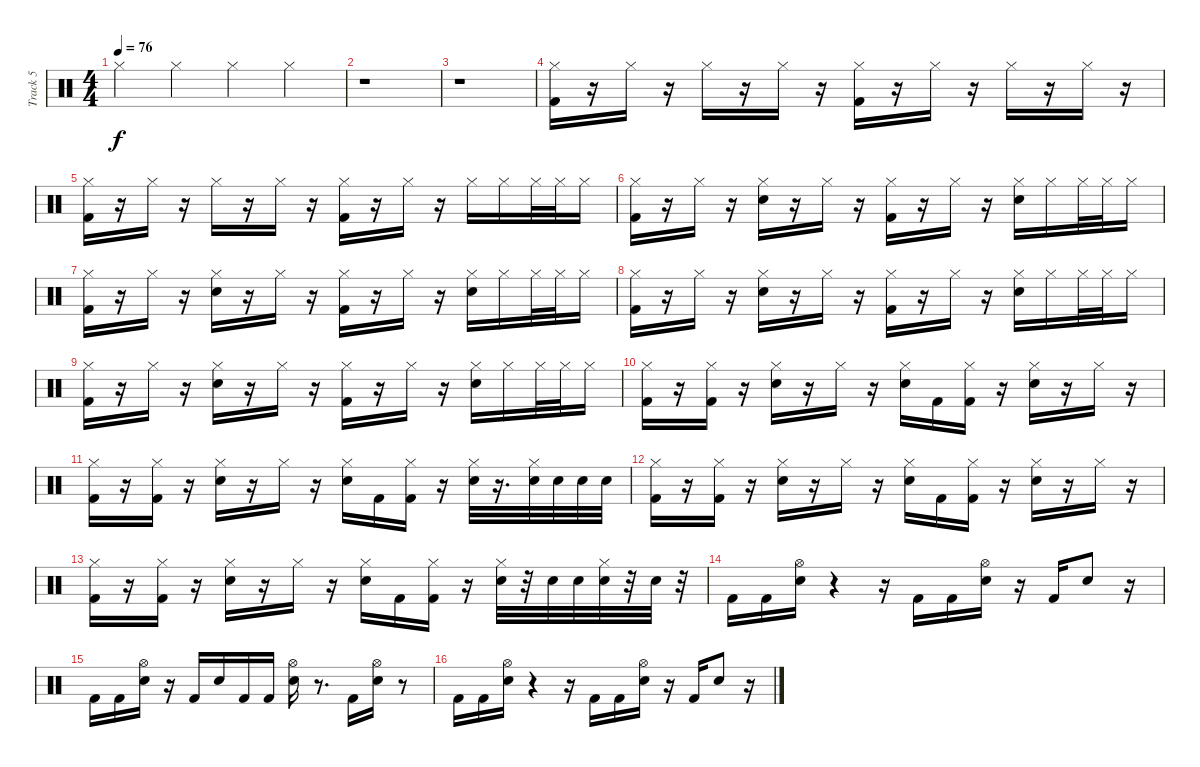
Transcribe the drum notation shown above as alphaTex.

\track ("Track 5" "Track 5") {instrument percussion}
\staff {score}
\articulation defaults
\ts (4 4)
\tempo 76
\clef neutral
\ks c "Hi-Hat (closed)".4{dy f} "Hi-Hat (closed)".4 "Hi-Hat (closed)".4 "Hi-Hat (closed)".4
|
r.1 |
r.1 |
("Hi-Hat (closed)" "Kick (hit) 2").16 r.16 "Hi-Hat (closed)".16 r.16 "Hi-Hat (closed)".16 r.16 "Hi-Hat (closed)".16 r.16 ("Hi-Hat (closed)" "Kick (hit) 2").16 r.16 "Hi-Hat (closed)".16 r.16 "Hi-Hat (closed)".16 r.16 "Hi-Hat (closed)".16 r.16 |
("Hi-Hat (closed)" "Kick (hit) 2").16 r.16 "Hi-Hat (closed)".16 r.16 "Hi-Hat (closed)".16 r.16 "Hi-Hat (closed)".16 r.16 ("Hi-Hat (closed)" "Kick (hit) 2").16 r.16 "Hi-Hat (closed)".16 r.16 "Hi-Hat (closed)".16 "Hi-Hat (closed)".16 "Hi-Hat (closed)".32 "Hi-Hat (closed)".32 "Hi-Hat (closed)".16 |
("Hi-Hat (closed)" "Kick (hit) 2").16 r.16 "Hi-Hat (closed)".16 r.16 ("Electric Snare (hit)" "Hi-Hat (closed)").16 r.16 "Hi-Hat (closed)".16 r.16 ("Hi-Hat (closed)" "Kick (hit) 2").16 r.16 "Hi-Hat (closed)".16 r.16 ("Hi-Hat (closed)" "Electric Snare (hit)").16 "Hi-Hat (closed)".16 "Hi-Hat (closed)".32 "Hi-Hat (closed)".32 "Hi-Hat (closed)".16 |
("Hi-Hat (closed)" "Kick (hit) 2").16 r.16 "Hi-Hat (closed)".16 r.16 ("Electric Snare (hit)" "Hi-Hat (closed)").16 r.16 "Hi-Hat (closed)".16 r.16 ("Hi-Hat (closed)" "Kick (hit) 2").16 r.16 "Hi-Hat (closed)".16 r.16 ("Hi-Hat (closed)" "Electric Snare (hit)").16 "Hi-Hat (closed)".16 "Hi-Hat (closed)".32 "Hi-Hat (closed)".32 "Hi-Hat (closed)".16 |
("Kick (hit) 2" "Hi-Hat (closed)").16 r.16 "Hi-Hat (closed)".16 r.16 ("Hi-Hat (closed)" "Electric Snare (hit)").16 r.16 "Hi-Hat (closed)".16 r.16 ("Kick (hit) 2" "Hi-Hat (closed)").16 r.16 "Hi-Hat (closed)".16 r.16 ("Hi-Hat (closed)" "Electric Snare (hit)").16 "Hi-Hat (closed)".16 "Hi-Hat (closed)".32 "Hi-Hat (closed)".32 "Hi-Hat (closed)".16 |
("Kick (hit) 2" "Hi-Hat (closed)").16 r.16 "Hi-Hat (closed)".16 r.16 ("Hi-Hat (closed)" "Electric Snare (hit)").16 r.16 "Hi-Hat (closed)".16 r.16 ("Kick (hit) 2" "Hi-Hat (closed)").16 r.16 "Hi-Hat (closed)".16 r.16 ("Hi-Hat (closed)" "Electric Snare (hit)").16 "Hi-Hat (closed)".16 "Hi-Hat (closed)".32 "Hi-Hat (closed)".32 "Hi-Hat (closed)".16 |
("Hi-Hat (closed)" "Kick (hit) 2").16 r.16 ("Hi-Hat (closed)" "Kick (hit) 2").16 r.16 ("Hi-Hat (closed)" "Electric Snare (hit)").16 r.16 "Hi-Hat (closed)".16 r.16 ("Electric Snare (hit)" "Hi-Hat (closed)").16 "Kick (hit) 2".16 ("Kick (hit) 2" "Hi-Hat (closed)").16 r.16 ("Hi-Hat (closed)" "Electric Snare (hit)").16 r.16 "Hi-Hat (closed)".16 r.16 |
("Kick (hit) 2" "Hi-Hat (closed)").16 r.16 ("Kick (hit) 2" "Hi-Hat (closed)").16 r.16 ("Electric Snare (hit)" "Hi-Hat (closed)").16 r.16 "Hi-Hat (closed)".16 r.16 ("Electric Snare (hit)" "Hi-Hat (closed)").16 "Kick (hit) 2".16 ("Kick (hit) 2" "Hi-Hat (closed)").16 r.16 ("Electric Snare (hit)" "Hi-Hat (closed)").32 r.16{d} ("Electric Snare (hit)" "Hi-Hat (closed)").32 "Electric Snare (hit)".32 "Electric Snare (hit)".32 "Electric Snare (hit)".32 |
("Kick (hit) 2" "Hi-Hat (closed)").16 r.16 ("Kick (hit) 2" "Hi-Hat (closed)").16 r.16 ("Electric Snare (hit)" "Hi-Hat (closed)").16 r.16 "Hi-Hat (closed)".16 r.16 ("Electric Snare (hit)" "Hi-Hat (closed)").16 "Kick (hit) 2".16 ("Kick (hit) 2" "Hi-Hat (closed)").16 r.16 ("Electric Snare (hit)" "Hi-Hat (closed)").16 r.16 "Hi-Hat (closed)".16 r.16 |
("Kick (hit) 2" "Hi-Hat (closed)").16 r.16 ("Kick (hit) 2" "Hi-Hat (closed)").16 r.16 ("Electric Snare (hit)" "Hi-Hat (closed)").16 r.16 "Hi-Hat (closed)".16 r.16 ("Electric Snare (hit)" "Hi-Hat (closed)").16 "Kick (hit) 2".16 ("Kick (hit) 2" "Hi-Hat (closed)").16 r.16 ("Electric Snare (hit)" "Hi-Hat (closed)").32 r.32 "Electric Snare (hit)".32 "Electric Snare (hit)".32 ("Electric Snare (hit)" "Hi-Hat (closed)").32 r.32 "Electric Snare (hit)".32 r.32 |
"Kick (hit) 2".16 "Kick (hit) 2".16 ("Hi-Hat (open)" "Electric Snare (hit)").16 r.4 r.16 "Kick (hit) 2".16 "Kick (hit) 2".16 ("Electric Snare (hit)" "Hi-Hat (open)").16 r.16 "Kick (hit) 2".16 "Electric Snare (hit)".8 r.16 |
"Kick (hit) 2".16 "Kick (hit) 2".16 ("Electric Snare (hit)" "Hi-Hat (open)").16 r.16 "Kick (hit) 2".16 "Electric Snare (hit)".16 "Kick (hit) 2".16 "Kick (hit) 2".16 ("Hi-Hat (open)" "Electric Snare (hit)").16 r.8{d} "Kick (hit) 2".16 ("Hi-Hat (open)" "Electric Snare (hit)").16 r.8 |
"Kick (hit) 2".16 "Kick (hit) 2".16 ("Hi-Hat (open)" "Electric Snare (hit)").16 r.4 r.16 "Kick (hit) 2".16 "Kick (hit) 2".16 ("Electric Snare (hit)" "Hi-Hat (open)").16 r.16 "Kick (hit) 2".16 "Electric Snare (hit)".8 r.16
